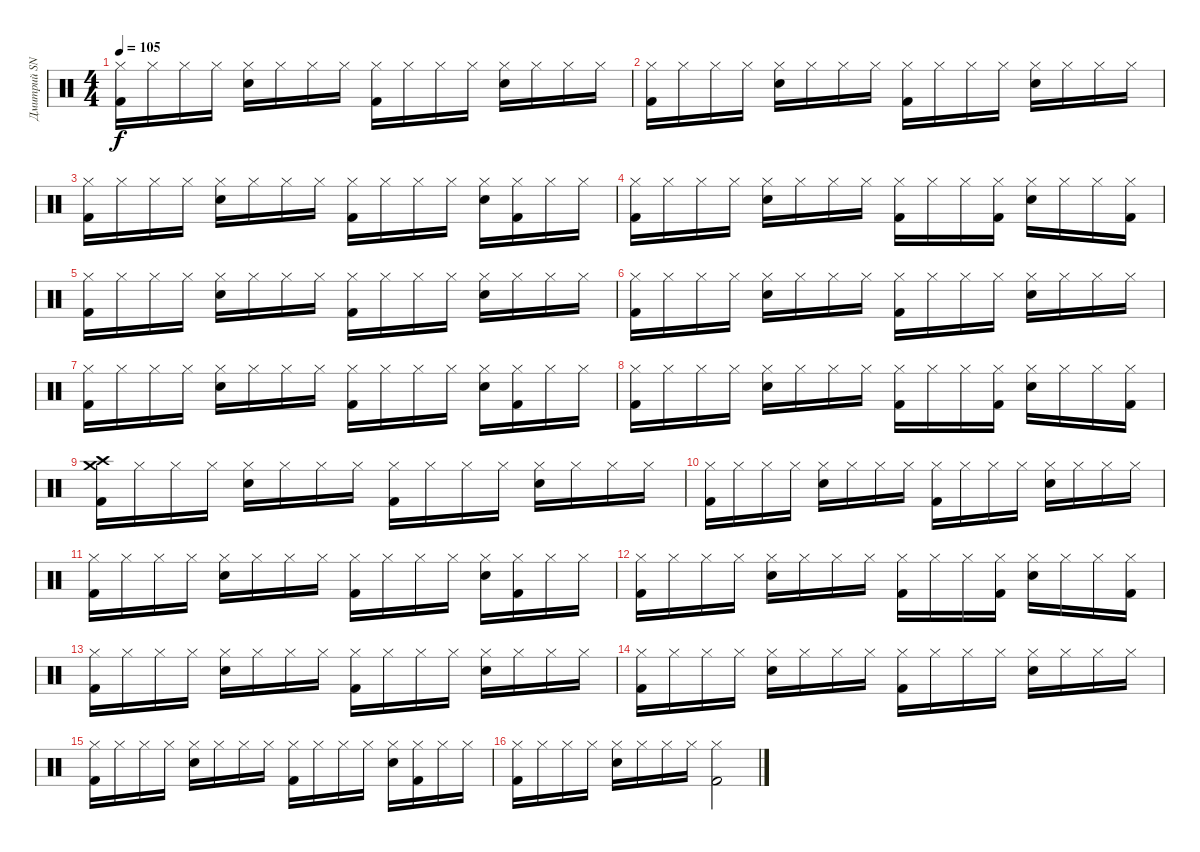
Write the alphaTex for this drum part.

\track ("Дмитрий SNAKE Хакимов (ударные)" "Дмитрий SN") {instrument percussion}
\staff {score}
\articulation defaults
\ts (4 4)
\tempo 105
\clef neutral
\ks c
("Hi-Hat (closed)" "Kick (hit) 2").16{dy f} "Hi-Hat (closed)".16 "Hi-Hat (closed)".16 "Hi-Hat (closed)".16 ("Hi-Hat (closed)" "Snare (hit) 2").16 "Hi-Hat (closed)".16 "Hi-Hat (closed)".16 "Hi-Hat (closed)".16 ("Hi-Hat (closed)" "Kick (hit) 2").16 "Hi-Hat (closed)".16 "Hi-Hat (closed)".16 "Hi-Hat (closed)".16 ("Hi-Hat (closed)" "Snare (hit) 2").16 "Hi-Hat (closed)".16 "Hi-Hat (closed)".16 "Hi-Hat (closed)".16 |
("Hi-Hat (closed)" "Kick (hit) 2").16 "Hi-Hat (closed)".16 "Hi-Hat (closed)".16 "Hi-Hat (closed)".16 ("Hi-Hat (closed)" "Snare (hit) 2").16 "Hi-Hat (closed)".16 "Hi-Hat (closed)".16 "Hi-Hat (closed)".16 ("Hi-Hat (closed)" "Kick (hit) 2").16 "Hi-Hat (closed)".16 "Hi-Hat (closed)".16 "Hi-Hat (closed)".16 ("Hi-Hat (closed)" "Snare (hit) 2").16 "Hi-Hat (closed)".16 "Hi-Hat (closed)".16 "Hi-Hat (closed)".16 |
("Hi-Hat (closed)" "Kick (hit) 2").16 "Hi-Hat (closed)".16 "Hi-Hat (closed)".16 "Hi-Hat (closed)".16 ("Hi-Hat (closed)" "Snare (hit) 2").16 "Hi-Hat (closed)".16 "Hi-Hat (closed)".16 "Hi-Hat (closed)".16 ("Hi-Hat (closed)" "Kick (hit) 2").16 "Hi-Hat (closed)".16 "Hi-Hat (closed)".16 "Hi-Hat (closed)".16 ("Hi-Hat (closed)" "Snare (hit) 2").16 ("Hi-Hat (closed)" "Kick (hit) 2").16 "Hi-Hat (closed)".16 "Hi-Hat (closed)".16 |
("Hi-Hat (closed)" "Kick (hit) 2").16 "Hi-Hat (closed)".16 "Hi-Hat (closed)".16 "Hi-Hat (closed)".16 ("Hi-Hat (closed)" "Snare (hit) 2").16 "Hi-Hat (closed)".16 "Hi-Hat (closed)".16 "Hi-Hat (closed)".16 ("Hi-Hat (closed)" "Kick (hit) 2").16 "Hi-Hat (closed)".16 "Hi-Hat (closed)".16 ("Hi-Hat (closed)" "Kick (hit) 2").16 ("Hi-Hat (closed)" "Snare (hit) 2").16 "Hi-Hat (closed)".16 "Hi-Hat (closed)".16 ("Hi-Hat (closed)" "Kick (hit) 2").16 |
("Hi-Hat (closed)" "Kick (hit) 2").16 "Hi-Hat (closed)".16 "Hi-Hat (closed)".16 "Hi-Hat (closed)".16 ("Hi-Hat (closed)" "Snare (hit) 2").16 "Hi-Hat (closed)".16 "Hi-Hat (closed)".16 "Hi-Hat (closed)".16 ("Hi-Hat (closed)" "Kick (hit) 2").16 "Hi-Hat (closed)".16 "Hi-Hat (closed)".16 "Hi-Hat (closed)".16 ("Hi-Hat (closed)" "Snare (hit) 2").16 "Hi-Hat (closed)".16 "Hi-Hat (closed)".16 "Hi-Hat (closed)".16 |
("Hi-Hat (closed)" "Kick (hit) 2").16 "Hi-Hat (closed)".16 "Hi-Hat (closed)".16 "Hi-Hat (closed)".16 ("Hi-Hat (closed)" "Snare (hit) 2").16 "Hi-Hat (closed)".16 "Hi-Hat (closed)".16 "Hi-Hat (closed)".16 ("Hi-Hat (closed)" "Kick (hit) 2").16 "Hi-Hat (closed)".16 "Hi-Hat (closed)".16 "Hi-Hat (closed)".16 ("Hi-Hat (closed)" "Snare (hit) 2").16 "Hi-Hat (closed)".16 "Hi-Hat (closed)".16 "Hi-Hat (closed)".16 |
("Hi-Hat (closed)" "Kick (hit) 2").16 "Hi-Hat (closed)".16 "Hi-Hat (closed)".16 "Hi-Hat (closed)".16 ("Hi-Hat (closed)" "Snare (hit) 2").16 "Hi-Hat (closed)".16 "Hi-Hat (closed)".16 "Hi-Hat (closed)".16 ("Hi-Hat (closed)" "Kick (hit) 2").16 "Hi-Hat (closed)".16 "Hi-Hat (closed)".16 "Hi-Hat (closed)".16 ("Hi-Hat (closed)" "Snare (hit) 2").16 ("Hi-Hat (closed)" "Kick (hit) 2").16 "Hi-Hat (closed)".16 "Hi-Hat (closed)".16 |
("Hi-Hat (closed)" "Kick (hit) 2").16 "Hi-Hat (closed)".16 "Hi-Hat (closed)".16 "Hi-Hat (closed)".16 ("Hi-Hat (closed)" "Snare (hit) 2").16 "Hi-Hat (closed)".16 "Hi-Hat (closed)".16 "Hi-Hat (closed)".16 ("Hi-Hat (closed)" "Kick (hit) 2").16 "Hi-Hat (closed)".16 "Hi-Hat (closed)".16 ("Hi-Hat (closed)" "Kick (hit) 2").16 ("Hi-Hat (closed)" "Snare (hit) 2").16 "Hi-Hat (closed)".16 "Hi-Hat (closed)".16 ("Hi-Hat (closed)" "Kick (hit) 2").16 |
("Crash high (hit)" "Crash medium (hit)" "Kick (hit) 2").16 "Hi-Hat (closed)".16 "Hi-Hat (closed)".16 "Hi-Hat (closed)".16 ("Hi-Hat (closed)" "Snare (hit) 2").16 "Hi-Hat (closed)".16 "Hi-Hat (closed)".16 "Hi-Hat (closed)".16 ("Hi-Hat (closed)" "Kick (hit) 2").16 "Hi-Hat (closed)".16 "Hi-Hat (closed)".16 "Hi-Hat (closed)".16 ("Hi-Hat (closed)" "Snare (hit) 2").16 "Hi-Hat (closed)".16 "Hi-Hat (closed)".16 "Hi-Hat (closed)".16 |
("Hi-Hat (closed)" "Kick (hit) 2").16 "Hi-Hat (closed)".16 "Hi-Hat (closed)".16 "Hi-Hat (closed)".16 ("Hi-Hat (closed)" "Snare (hit) 2").16 "Hi-Hat (closed)".16 "Hi-Hat (closed)".16 "Hi-Hat (closed)".16 ("Hi-Hat (closed)" "Kick (hit) 2").16 "Hi-Hat (closed)".16 "Hi-Hat (closed)".16 "Hi-Hat (closed)".16 ("Hi-Hat (closed)" "Snare (hit) 2").16 "Hi-Hat (closed)".16 "Hi-Hat (closed)".16 "Hi-Hat (closed)".16 |
("Hi-Hat (closed)" "Kick (hit) 2").16 "Hi-Hat (closed)".16 "Hi-Hat (closed)".16 "Hi-Hat (closed)".16 ("Hi-Hat (closed)" "Snare (hit) 2").16 "Hi-Hat (closed)".16 "Hi-Hat (closed)".16 "Hi-Hat (closed)".16 ("Hi-Hat (closed)" "Kick (hit) 2").16 "Hi-Hat (closed)".16 "Hi-Hat (closed)".16 "Hi-Hat (closed)".16 ("Hi-Hat (closed)" "Snare (hit) 2").16 ("Hi-Hat (closed)" "Kick (hit) 2").16 "Hi-Hat (closed)".16 "Hi-Hat (closed)".16 |
("Hi-Hat (closed)" "Kick (hit) 2").16 "Hi-Hat (closed)".16 "Hi-Hat (closed)".16 "Hi-Hat (closed)".16 ("Hi-Hat (closed)" "Snare (hit) 2").16 "Hi-Hat (closed)".16 "Hi-Hat (closed)".16 "Hi-Hat (closed)".16 ("Hi-Hat (closed)" "Kick (hit) 2").16 "Hi-Hat (closed)".16 "Hi-Hat (closed)".16 ("Hi-Hat (closed)" "Kick (hit) 2").16 ("Hi-Hat (closed)" "Snare (hit) 2").16 "Hi-Hat (closed)".16 "Hi-Hat (closed)".16 ("Hi-Hat (closed)" "Kick (hit) 2").16 |
("Hi-Hat (closed)" "Kick (hit) 2").16 "Hi-Hat (closed)".16 "Hi-Hat (closed)".16 "Hi-Hat (closed)".16 ("Hi-Hat (closed)" "Snare (hit) 2").16 "Hi-Hat (closed)".16 "Hi-Hat (closed)".16 "Hi-Hat (closed)".16 ("Hi-Hat (closed)" "Kick (hit) 2").16 "Hi-Hat (closed)".16 "Hi-Hat (closed)".16 "Hi-Hat (closed)".16 ("Hi-Hat (closed)" "Snare (hit) 2").16 "Hi-Hat (closed)".16 "Hi-Hat (closed)".16 "Hi-Hat (closed)".16 |
("Hi-Hat (closed)" "Kick (hit) 2").16 "Hi-Hat (closed)".16 "Hi-Hat (closed)".16 "Hi-Hat (closed)".16 ("Hi-Hat (closed)" "Snare (hit) 2").16 "Hi-Hat (closed)".16 "Hi-Hat (closed)".16 "Hi-Hat (closed)".16 ("Hi-Hat (closed)" "Kick (hit) 2").16 "Hi-Hat (closed)".16 "Hi-Hat (closed)".16 "Hi-Hat (closed)".16 ("Hi-Hat (closed)" "Snare (hit) 2").16 "Hi-Hat (closed)".16 "Hi-Hat (closed)".16 "Hi-Hat (closed)".16 |
("Hi-Hat (closed)" "Kick (hit) 2").16 "Hi-Hat (closed)".16 "Hi-Hat (closed)".16 "Hi-Hat (closed)".16 ("Hi-Hat (closed)" "Snare (hit) 2").16 "Hi-Hat (closed)".16 "Hi-Hat (closed)".16 "Hi-Hat (closed)".16 ("Hi-Hat (closed)" "Kick (hit) 2").16 "Hi-Hat (closed)".16 "Hi-Hat (closed)".16 "Hi-Hat (closed)".16 ("Hi-Hat (closed)" "Snare (hit) 2").16 ("Hi-Hat (closed)" "Kick (hit) 2").16 "Hi-Hat (closed)".16 "Hi-Hat (closed)".16 |
("Hi-Hat (closed)" "Kick (hit) 2").16 "Hi-Hat (closed)".16 "Hi-Hat (closed)".16 "Hi-Hat (closed)".16 ("Hi-Hat (closed)" "Snare (hit) 2").16 "Hi-Hat (closed)".16 "Hi-Hat (closed)".16 "Hi-Hat (closed)".16 ("Hi-Hat (closed)" "Kick (hit) 2").2
